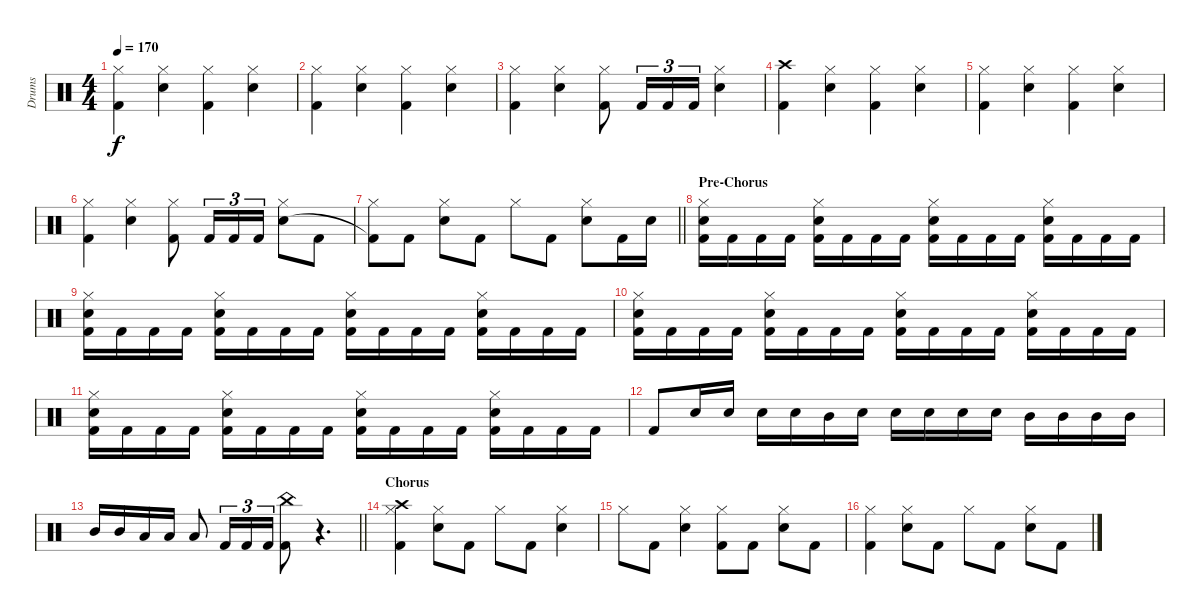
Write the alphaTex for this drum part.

\track ("Drums" "Drums") {instrument percussion}
\staff {score}
\articulation defaults
\ts (4 4)
\tempo 170
\clef neutral
\ks c
("Hi-Hat (closed)" "Kick (hit) 2").4{dy f} ("Hi-Hat (closed)" "Snare (hit) 2").4 ("Hi-Hat (closed)" "Kick (hit) 2").4 ("Hi-Hat (closed)" "Snare (hit) 2").4 |
("Hi-Hat (closed)" "Kick (hit) 2").4 ("Hi-Hat (closed)" "Snare (hit) 2").4 ("Hi-Hat (closed)" "Kick (hit) 2").4 ("Hi-Hat (closed)" "Snare (hit) 2").4 |
("Hi-Hat (closed)" "Kick (hit) 2").4 ("Hi-Hat (closed)" "Snare (hit) 2").4 ("Hi-Hat (closed)" "Kick (hit) 2").8 "Kick (hit) 2".16{tu (3 2)} "Kick (hit) 2".16{tu (3 2)} "Kick (hit) 2".16{tu (3 2)} ("Hi-Hat (closed)" "Snare (hit) 2").4 |
("Crash high (hit)" "Kick (hit) 2").4 ("Hi-Hat (closed)" "Snare (hit) 2").4 ("Hi-Hat (closed)" "Kick (hit) 2").4 ("Hi-Hat (closed)" "Snare (hit) 2").4 |
("Hi-Hat (closed)" "Kick (hit) 2").4 ("Hi-Hat (closed)" "Snare (hit) 2").4 ("Hi-Hat (closed)" "Kick (hit) 2").4 ("Hi-Hat (closed)" "Snare (hit) 2").4 |
("Hi-Hat (closed)" "Kick (hit) 2").4 ("Hi-Hat (closed)" "Snare (hit) 2").4 ("Hi-Hat (closed)" "Kick (hit) 2").8 "Kick (hit) 2".16{tu (3 2)} "Kick (hit) 2".16{tu (3 2)} "Kick (hit) 2".16{tu (3 2)} ("Hi-Hat (closed)" "Snare (hit) 2").8 "Kick (hit) 2".8 |
\barLineRight lightlight
("Hi-Hat (closed)" "Kick (hit) 2"{t}).8 "Kick (hit) 2".8 ("Hi-Hat (closed)" "Snare (hit) 2").8 "Kick (hit) 2".8 "Hi-Hat (closed)".8 "Kick (hit) 2".8 ("Hi-Hat (closed)" "Snare (hit) 2").8 "Kick (hit) 2".16 "Snare (hit) 2".16 |
\section ("" "Pre-Chorus")
("Hi-Hat (closed)" "Snare (hit) 2" "Kick (hit) 2").16 "Kick (hit) 2".16 "Kick (hit) 2".16 "Kick (hit) 2".16 ("Hi-Hat (closed)" "Snare (hit) 2" "Kick (hit) 2").16 "Kick (hit) 2".16 "Kick (hit) 2".16 "Kick (hit) 2".16 ("Hi-Hat (closed)" "Snare (hit) 2" "Kick (hit) 2").16 "Kick (hit) 2".16 "Kick (hit) 2".16 "Kick (hit) 2".16 ("Hi-Hat (closed)" "Snare (hit) 2" "Kick (hit) 2").16 "Kick (hit) 2".16 "Kick (hit) 2".16 "Kick (hit) 2".16 |
("Hi-Hat (closed)" "Snare (hit) 2" "Kick (hit) 2").16 "Kick (hit) 2".16 "Kick (hit) 2".16 "Kick (hit) 2".16 ("Hi-Hat (closed)" "Snare (hit) 2" "Kick (hit) 2").16 "Kick (hit) 2".16 "Kick (hit) 2".16 "Kick (hit) 2".16 ("Hi-Hat (closed)" "Snare (hit) 2" "Kick (hit) 2").16 "Kick (hit) 2".16 "Kick (hit) 2".16 "Kick (hit) 2".16 ("Hi-Hat (closed)" "Snare (hit) 2" "Kick (hit) 2").16 "Kick (hit) 2".16 "Kick (hit) 2".16 "Kick (hit) 2".16 |
("Hi-Hat (closed)" "Snare (hit) 2" "Kick (hit) 2").16 "Kick (hit) 2".16 "Kick (hit) 2".16 "Kick (hit) 2".16 ("Hi-Hat (closed)" "Snare (hit) 2" "Kick (hit) 2").16 "Kick (hit) 2".16 "Kick (hit) 2".16 "Kick (hit) 2".16 ("Hi-Hat (closed)" "Snare (hit) 2" "Kick (hit) 2").16 "Kick (hit) 2".16 "Kick (hit) 2".16 "Kick (hit) 2".16 ("Hi-Hat (closed)" "Snare (hit) 2" "Kick (hit) 2").16 "Kick (hit) 2".16 "Kick (hit) 2".16 "Kick (hit) 2".16 |
("Hi-Hat (closed)" "Snare (hit) 2" "Kick (hit) 2").16 "Kick (hit) 2".16 "Kick (hit) 2".16 "Kick (hit) 2".16 ("Hi-Hat (closed)" "Snare (hit) 2" "Kick (hit) 2").16 "Kick (hit) 2".16 "Kick (hit) 2".16 "Kick (hit) 2".16 ("Hi-Hat (closed)" "Snare (hit) 2" "Kick (hit) 2").16 "Kick (hit) 2".16 "Kick (hit) 2".16 "Kick (hit) 2".16 ("Hi-Hat (closed)" "Snare (hit) 2" "Kick (hit) 2").16 "Kick (hit) 2".16 "Kick (hit) 2".16 "Kick (hit) 2".16 |
"Kick (hit) 2".8 "Snare (hit) 2".16 "Snare (hit) 2".16 "Snare (hit) 2".16 "Snare (hit) 2".16 "Mid Tom (hit)".16 "Snare (hit) 2".16 "Snare (hit) 2".16 "Snare (hit) 2".16 "Snare (hit) 2".16 "Snare (hit) 2".16 "Mid Tom (hit)".16 "Mid Tom (hit)".16 "Mid Tom (hit)".16 "Mid Tom (hit)".16 |
\barLineRight lightlight "Mid Tom (hit)".16 "Mid Tom (hit)".16 "Low Tom (hit)".16 "Low Tom (hit)".16 "Low Tom (hit)".8 "Kick (hit) 2".16{tu (3 2)} "Kick (hit) 2".16{tu (3 2)} "Kick (hit) 2".16{tu (3 2)}
("China (hit)" "Kick (hit) 2").8 r.4{d} |
\section ("" "Chorus")
("Crash high (hit)" "Hi-Hat (closed)" "Kick (hit) 2").4 ("Hi-Hat (closed)" "Snare (hit) 2").8 "Kick (hit) 2".8 "Hi-Hat (closed)".8 "Kick (hit) 2".8 ("Hi-Hat (closed)" "Snare (hit) 2").4 |
"Hi-Hat (closed)".8 "Kick (hit) 2".8 ("Hi-Hat (closed)" "Snare (hit) 2").4 ("Hi-Hat (closed)" "Kick (hit) 2").8 "Kick (hit) 2".8 ("Hi-Hat (closed)" "Snare (hit) 2").8 "Kick (hit) 2".8 |
("Hi-Hat (closed)" "Kick (hit) 2").4 ("Hi-Hat (closed)" "Snare (hit) 2").8 "Kick (hit) 2".8 "Hi-Hat (closed)".8 "Kick (hit) 2".8 ("Hi-Hat (closed)" "Snare (hit) 2").8 "Kick (hit) 2".8
